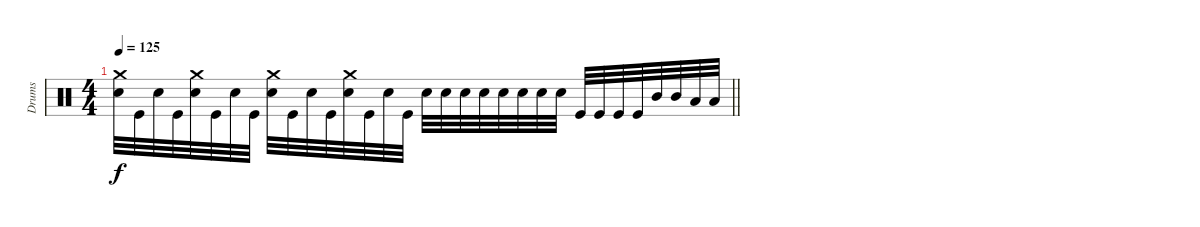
\track ("Drums" "Drums") {instrument percussion}
\staff
\articulation defaults
\ts (4 4)
\tempo 125
\clef neutral
\barLineRight lightlight
\ks c
("Crash medium (hit)" "Electric Snare (hit)").32{dy f} "Kick (hit)".32 "Electric Snare (hit)".32 "Kick (hit)".32 ("Crash medium (hit)" "Electric Snare (hit)").32 "Kick (hit)".32 "Electric Snare (hit)".32 "Kick (hit)".32 ("Crash medium (hit)" "Electric Snare (hit)").32 "Kick (hit)".32 "Electric Snare (hit)".32 "Kick (hit)".32 ("Crash medium (hit)" "Electric Snare (hit)").32 "Kick (hit)".32 "Electric Snare (hit)".32 "Kick (hit)".32 "Electric Snare (hit)".32 "Electric Snare (hit)".32 "Electric Snare (hit)".32 "Electric Snare (hit)".32 "Electric Snare (hit)".32 "Electric Snare (hit)".32 "Electric Snare (hit)".32 "Electric Snare (hit)".32 "Kick (hit)".32 "Kick (hit)".32 "Kick (hit)".32 "Kick (hit)".32 "Mid Tom (hit)".32 "Mid Tom (hit)".32 "Low Tom (hit)".32 "Low Tom (hit)".32
